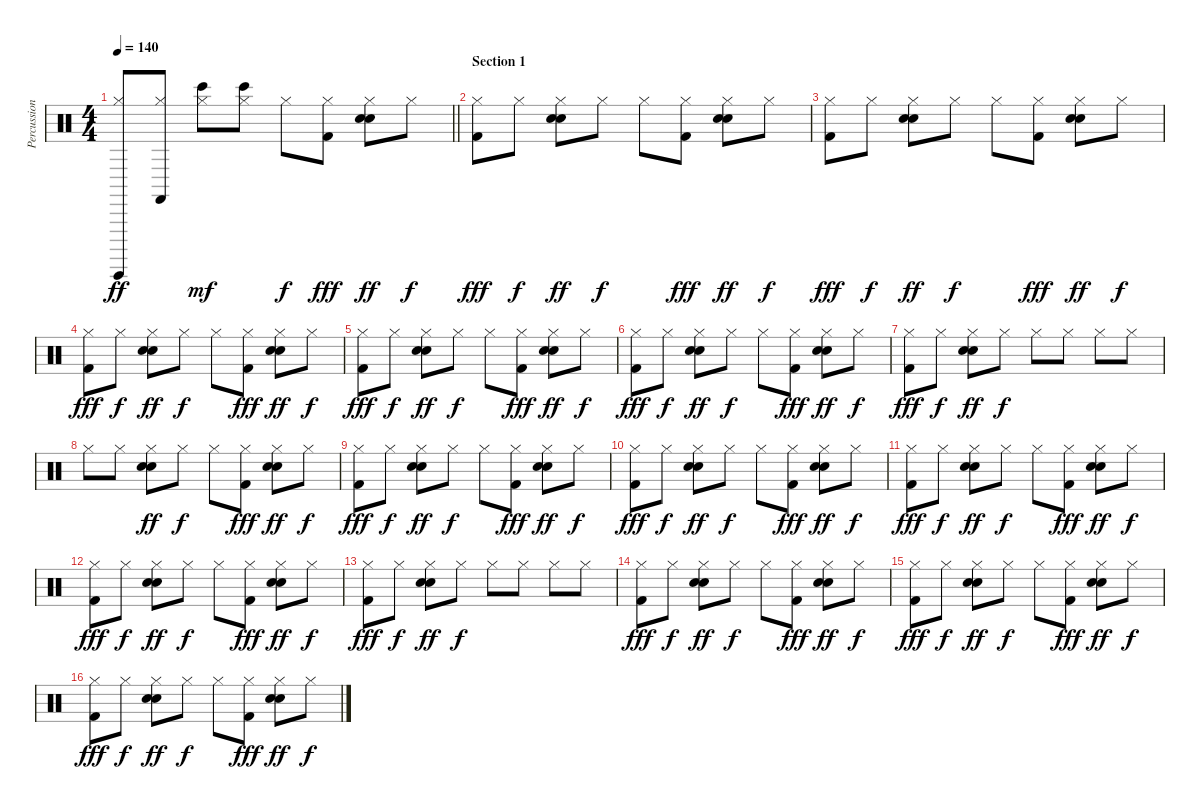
\track ("Percussion" "Percussion") {instrument percussion}
\staff {score}
\articulation defaults
\ts (4 4)
\tempo 140
\clef neutral
\barLineRight lightlight
\ks c
("Hi-Hat (closed)" "Guiro (hit)").8{dy ff} ("Hi-Hat (closed)" "Castanets (hit)").8 ("Hi-Hat (closed)" "Bongo High (hit)").8{dy mf} ("Hi-Hat (closed)" "Bongo High (hit)").8 "Hi-Hat (closed)".8{dy f} ("Hi-Hat (closed)" "Kick (hit) 2").8{dy fff} ("Hi-Hat (closed)" "Electric Snare (hit)" "Snare (hit) 2").8{dy ff} "Hi-Hat (closed)".8{dy f} |
\section ("" "Section 1")
("Hi-Hat (closed)" "Kick (hit) 2").8{dy fff} "Hi-Hat (closed)".8{dy f} ("Hi-Hat (closed)" "Electric Snare (hit)" "Snare (hit) 2").8{dy ff} "Hi-Hat (closed)".8{dy f} "Hi-Hat (closed)".8 ("Hi-Hat (closed)" "Kick (hit) 2").8{dy fff} ("Hi-Hat (closed)" "Electric Snare (hit)" "Snare (hit) 2").8{dy ff} "Hi-Hat (closed)".8{dy f} |
("Hi-Hat (closed)" "Kick (hit) 2").8{dy fff} "Hi-Hat (closed)".8{dy f} ("Hi-Hat (closed)" "Electric Snare (hit)" "Snare (hit) 2").8{dy ff} "Hi-Hat (closed)".8{dy f} "Hi-Hat (closed)".8 ("Hi-Hat (closed)" "Kick (hit) 2").8{dy fff} ("Hi-Hat (closed)" "Electric Snare (hit)" "Snare (hit) 2").8{dy ff} "Hi-Hat (closed)".8{dy f} |
("Hi-Hat (closed)" "Kick (hit) 2").8{dy fff} "Hi-Hat (closed)".8{dy f} ("Hi-Hat (closed)" "Electric Snare (hit)" "Snare (hit) 2").8{dy ff} "Hi-Hat (closed)".8{dy f} "Hi-Hat (closed)".8 ("Hi-Hat (closed)" "Kick (hit) 2").8{dy fff} ("Hi-Hat (closed)" "Electric Snare (hit)" "Snare (hit) 2").8{dy ff} "Hi-Hat (closed)".8{dy f} |
("Hi-Hat (closed)" "Kick (hit) 2").8{dy fff} "Hi-Hat (closed)".8{dy f} ("Hi-Hat (closed)" "Electric Snare (hit)" "Snare (hit) 2").8{dy ff} "Hi-Hat (closed)".8{dy f} "Hi-Hat (closed)".8 ("Hi-Hat (closed)" "Kick (hit) 2").8{dy fff} ("Hi-Hat (closed)" "Electric Snare (hit)" "Snare (hit) 2").8{dy ff} "Hi-Hat (closed)".8{dy f} |
("Hi-Hat (closed)" "Kick (hit) 2").8{dy fff} "Hi-Hat (closed)".8{dy f} ("Hi-Hat (closed)" "Electric Snare (hit)" "Snare (hit) 2").8{dy ff} "Hi-Hat (closed)".8{dy f} "Hi-Hat (closed)".8 ("Hi-Hat (closed)" "Kick (hit) 2").8{dy fff} ("Hi-Hat (closed)" "Electric Snare (hit)" "Snare (hit) 2").8{dy ff} "Hi-Hat (closed)".8{dy f} |
("Hi-Hat (closed)" "Kick (hit) 2").8{dy fff} "Hi-Hat (closed)".8{dy f} ("Hi-Hat (closed)" "Electric Snare (hit)" "Snare (hit) 2").8{dy ff} "Hi-Hat (closed)".8{dy f} "Hi-Hat (closed)".8 "Hi-Hat (closed)".8 "Hi-Hat (closed)".8 "Hi-Hat (closed)".8 |
"Hi-Hat (closed)".8 "Hi-Hat (closed)".8 ("Hi-Hat (closed)" "Electric Snare (hit)" "Snare (hit) 2").8{dy ff} "Hi-Hat (closed)".8{dy f} "Hi-Hat (closed)".8 ("Hi-Hat (closed)" "Kick (hit) 2").8{dy fff} ("Hi-Hat (closed)" "Electric Snare (hit)" "Snare (hit) 2").8{dy ff} "Hi-Hat (closed)".8{dy f} |
("Hi-Hat (closed)" "Kick (hit) 2").8{dy fff} "Hi-Hat (closed)".8{dy f} ("Hi-Hat (closed)" "Electric Snare (hit)" "Snare (hit) 2").8{dy ff} "Hi-Hat (closed)".8{dy f} "Hi-Hat (closed)".8 ("Hi-Hat (closed)" "Kick (hit) 2").8{dy fff} ("Hi-Hat (closed)" "Electric Snare (hit)" "Snare (hit) 2").8{dy ff} "Hi-Hat (closed)".8{dy f} |
("Hi-Hat (closed)" "Kick (hit) 2").8{dy fff} "Hi-Hat (closed)".8{dy f} ("Hi-Hat (closed)" "Electric Snare (hit)" "Snare (hit) 2").8{dy ff} "Hi-Hat (closed)".8{dy f} "Hi-Hat (closed)".8 ("Hi-Hat (closed)" "Kick (hit) 2").8{dy fff} ("Hi-Hat (closed)" "Electric Snare (hit)" "Snare (hit) 2").8{dy ff} "Hi-Hat (closed)".8{dy f} |
("Hi-Hat (closed)" "Kick (hit) 2").8{dy fff} "Hi-Hat (closed)".8{dy f} ("Hi-Hat (closed)" "Electric Snare (hit)" "Snare (hit) 2").8{dy ff} "Hi-Hat (closed)".8{dy f} "Hi-Hat (closed)".8 ("Hi-Hat (closed)" "Kick (hit) 2").8{dy fff} ("Hi-Hat (closed)" "Electric Snare (hit)" "Snare (hit) 2").8{dy ff} "Hi-Hat (closed)".8{dy f} |
("Hi-Hat (closed)" "Kick (hit) 2").8{dy fff} "Hi-Hat (closed)".8{dy f} ("Hi-Hat (closed)" "Electric Snare (hit)" "Snare (hit) 2").8{dy ff} "Hi-Hat (closed)".8{dy f} "Hi-Hat (closed)".8 ("Hi-Hat (closed)" "Kick (hit) 2").8{dy fff} ("Hi-Hat (closed)" "Electric Snare (hit)" "Snare (hit) 2").8{dy ff} "Hi-Hat (closed)".8{dy f} |
("Hi-Hat (closed)" "Kick (hit) 2").8{dy fff} "Hi-Hat (closed)".8{dy f} ("Hi-Hat (closed)" "Electric Snare (hit)" "Snare (hit) 2").8{dy ff} "Hi-Hat (closed)".8{dy f} "Hi-Hat (closed)".8 "Hi-Hat (closed)".8 "Hi-Hat (closed)".8 "Hi-Hat (closed)".8 |
("Hi-Hat (closed)" "Kick (hit) 2").8{dy fff} "Hi-Hat (closed)".8{dy f} ("Hi-Hat (closed)" "Electric Snare (hit)" "Snare (hit) 2").8{dy ff} "Hi-Hat (closed)".8{dy f} "Hi-Hat (closed)".8 ("Hi-Hat (closed)" "Kick (hit) 2").8{dy fff} ("Hi-Hat (closed)" "Electric Snare (hit)" "Snare (hit) 2").8{dy ff} "Hi-Hat (closed)".8{dy f} |
("Hi-Hat (closed)" "Kick (hit) 2").8{dy fff} "Hi-Hat (closed)".8{dy f} ("Hi-Hat (closed)" "Electric Snare (hit)" "Snare (hit) 2").8{dy ff} "Hi-Hat (closed)".8{dy f} "Hi-Hat (closed)".8 ("Hi-Hat (closed)" "Kick (hit) 2").8{dy fff} ("Hi-Hat (closed)" "Electric Snare (hit)" "Snare (hit) 2").8{dy ff} "Hi-Hat (closed)".8{dy f} |
("Hi-Hat (closed)" "Kick (hit) 2").8{dy fff} "Hi-Hat (closed)".8{dy f} ("Hi-Hat (closed)" "Electric Snare (hit)" "Snare (hit) 2").8{dy ff} "Hi-Hat (closed)".8{dy f} "Hi-Hat (closed)".8 ("Hi-Hat (closed)" "Kick (hit) 2").8{dy fff} ("Hi-Hat (closed)" "Electric Snare (hit)" "Snare (hit) 2").8{dy ff} "Hi-Hat (closed)".8{dy f}
